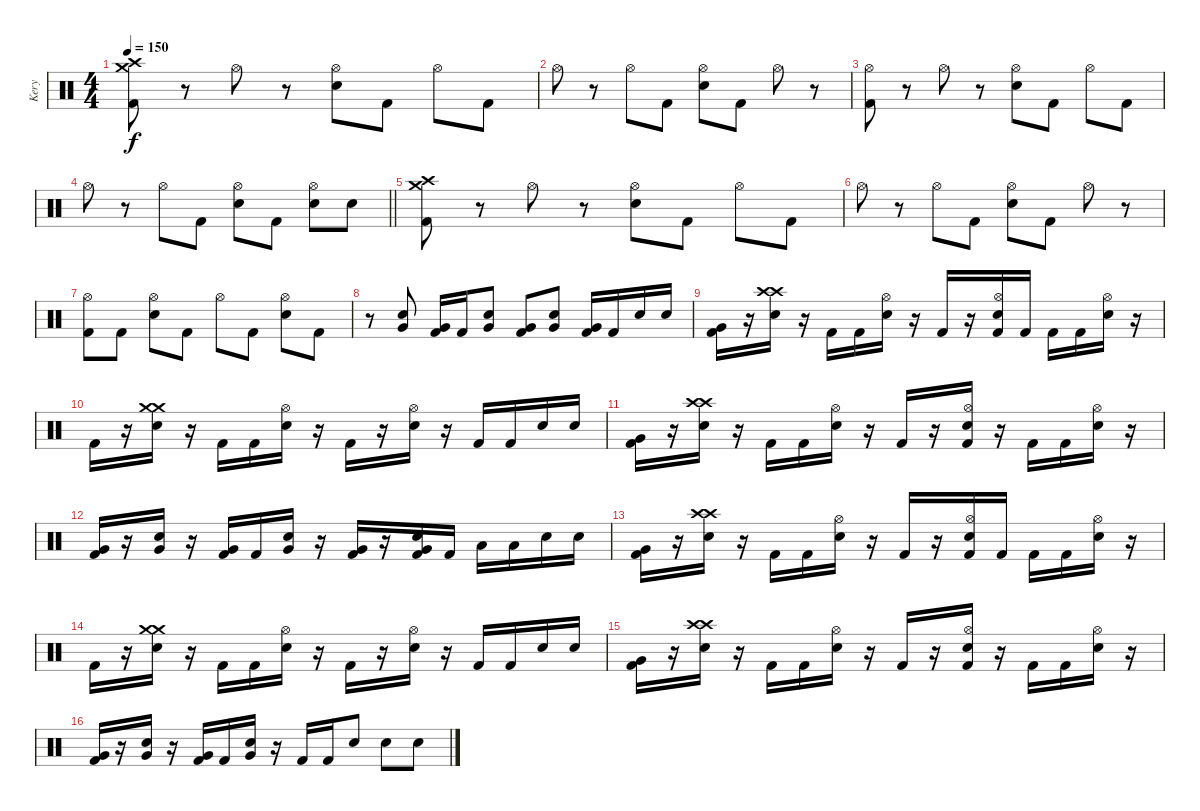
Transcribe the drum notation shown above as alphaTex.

\track ("Kery" "Kery") {instrument percussion}
\staff {score}
\articulation defaults
\ts (4 4)
\tempo 150
\clef neutral
\ks c
("Crash high (hit)" "Crash medium (hit)" "Kick (hit) 2").8{dy f} r.8 "Hi-Hat (open)".8 r.8 ("Hi-Hat (open)" "Electric Snare (hit)").8 "Kick (hit) 2".8 "Hi-Hat (open)".8 "Kick (hit) 2".8 |
"Hi-Hat (open)".8 r.8 "Hi-Hat (open)".8 "Kick (hit) 2".8 ("Hi-Hat (open)" "Electric Snare (hit)").8 "Kick (hit) 2".8 "Hi-Hat (open)".8 r.8 |
("Hi-Hat (open)" "Kick (hit) 2").8 r.8 "Hi-Hat (open)".8 r.8 ("Hi-Hat (open)" "Electric Snare (hit)").8 "Kick (hit) 2".8 "Hi-Hat (open)".8 "Kick (hit) 2".8 |
\barLineRight lightlight "Hi-Hat (open)".8
r.8 "Hi-Hat (open)".8 "Kick (hit) 2".8 ("Hi-Hat (open)" "Electric Snare (hit)").8 "Kick (hit) 2".8 ("Hi-Hat (open)" "Electric Snare (hit)").8 "Electric Snare (hit)".8 |
("Crash high (hit)" "Crash medium (hit)" "Kick (hit) 2").8 r.8 "Hi-Hat (open)".8 r.8 ("Hi-Hat (open)" "Electric Snare (hit)").8 "Kick (hit) 2".8 "Hi-Hat (open)".8 "Kick (hit) 2".8 |
"Hi-Hat (open)".8 r.8 "Hi-Hat (open)".8 "Kick (hit) 2".8 ("Hi-Hat (open)" "Electric Snare (hit)").8 "Kick (hit) 2".8 "Hi-Hat (open)".8 r.8 |
("Hi-Hat (open)" "Kick (hit) 2").8 "Kick (hit) 2".8 ("Hi-Hat (open)" "Electric Snare (hit)").8 "Kick (hit) 2".8 "Hi-Hat (open)".8 "Kick (hit) 2".8 ("Hi-Hat (open)" "Electric Snare (hit)").8 "Kick (hit) 2".8 |
r.8 ("Very Low Tom (hit)" "Electric Snare (hit)").8 ("Very Low Tom (hit)" "Kick (hit) 2").16 "Kick (hit) 2".16 ("Very Low Tom (hit)" "Electric Snare (hit)").8 ("Very Low Tom (hit)" "Kick (hit) 2").8 ("Very Low Tom (hit)" "Electric Snare (hit)").8 ("Very Low Tom (hit)" "Kick (hit) 2").16 "Kick (hit) 2".16 "Electric Snare (hit)".16 "Electric Snare (hit)".16 |
("Very Low Tom (hit)" "Kick (hit) 2").16 r.16 ("Crash high (hit)" "Crash high (hit)" "Electric Snare (hit)").16 r.16 "Kick (hit) 2".16 "Kick (hit) 2".16 ("Hi-Hat (open)" "Electric Snare (hit)").16 r.16 "Kick (hit) 2".16 r.16 ("Hi-Hat (open)" "Electric Snare (hit)" "Kick (hit) 2").16 "Kick (hit) 2".16 "Kick (hit) 2".16 "Kick (hit) 2".16 ("Hi-Hat (open)" "Electric Snare (hit)").16 r.16 |
"Kick (hit) 2".16 r.16 ("Crash medium (hit)" "Crash medium (hit)" "Electric Snare (hit)").16 r.16 "Kick (hit) 2".16 "Kick (hit) 2".16 ("Hi-Hat (open)" "Electric Snare (hit)").16 r.16 "Kick (hit) 2".16 r.16 ("Hi-Hat (open)" "Electric Snare (hit)").16 r.16 "Kick (hit) 2".16 "Kick (hit) 2".16 "Electric Snare (hit)".16 "Electric Snare (hit)".16 |
("Very Low Tom (hit)" "Kick (hit) 2").16 r.16 ("Crash high (hit)" "Crash high (hit)" "Electric Snare (hit)").16 r.16 "Kick (hit) 2".16 "Kick (hit) 2".16 ("Hi-Hat (open)" "Electric Snare (hit)").16 r.16 "Kick (hit) 2".16 r.16 ("Hi-Hat (open)" "Electric Snare (hit)" "Kick (hit) 2").16 r.16 "Kick (hit) 2".16 "Kick (hit) 2".16 ("Hi-Hat (open)" "Electric Snare (hit)").16 r.16 |
("Very Low Tom (hit)" "Kick (hit) 2").16 r.16 ("Very Low Tom (hit)" "Electric Snare (hit)").16 r.16 ("Very Low Tom (hit)" "Kick (hit) 2").16 "Kick (hit) 2".16 ("Very Low Tom (hit)" "Electric Snare (hit)").16 r.16 ("Very Low Tom (hit)" "Kick (hit) 2").16 r.16 ("Very Low Tom (hit)" "Electric Snare (hit)" "Kick (hit) 2").16 "Kick (hit) 2".16 "Low Tom (hit)".16 "Low Tom (hit)".16 "Electric Snare (hit)".16 "Electric Snare (hit)".16 |
("Very Low Tom (hit)" "Kick (hit) 2").16 r.16 ("Crash high (hit)" "Crash high (hit)" "Electric Snare (hit)").16 r.16 "Kick (hit) 2".16 "Kick (hit) 2".16 ("Hi-Hat (open)" "Electric Snare (hit)").16 r.16 "Kick (hit) 2".16 r.16 ("Hi-Hat (open)" "Electric Snare (hit)" "Kick (hit) 2").16 "Kick (hit) 2".16 "Kick (hit) 2".16 "Kick (hit) 2".16 ("Hi-Hat (open)" "Electric Snare (hit)").16 r.16 |
"Kick (hit) 2".16 r.16 ("Crash medium (hit)" "Crash medium (hit)" "Electric Snare (hit)").16 r.16 "Kick (hit) 2".16 "Kick (hit) 2".16 ("Hi-Hat (open)" "Electric Snare (hit)").16 r.16 "Kick (hit) 2".16 r.16 ("Hi-Hat (open)" "Electric Snare (hit)").16 r.16 "Kick (hit) 2".16 "Kick (hit) 2".16 "Electric Snare (hit)".16 "Electric Snare (hit)".16 |
("Very Low Tom (hit)" "Kick (hit) 2").16 r.16 ("Crash high (hit)" "Crash high (hit)" "Electric Snare (hit)").16 r.16 "Kick (hit) 2".16 "Kick (hit) 2".16 ("Hi-Hat (open)" "Electric Snare (hit)").16 r.16 "Kick (hit) 2".16 r.16 ("Hi-Hat (open)" "Electric Snare (hit)" "Kick (hit) 2").16 r.16 "Kick (hit) 2".16 "Kick (hit) 2".16 ("Hi-Hat (open)" "Electric Snare (hit)").16 r.16 |
("Very Low Tom (hit)" "Kick (hit) 2").16 r.16 ("Very Low Tom (hit)" "Electric Snare (hit)").16 r.16 ("Very Low Tom (hit)" "Kick (hit) 2").16 "Kick (hit) 2".16 ("Very Low Tom (hit)" "Electric Snare (hit)").16 r.16 "Kick (hit) 2".16 "Kick (hit) 2".16 "Electric Snare (hit)".8 "Electric Snare (hit)".8 "Electric Snare (hit)".8
